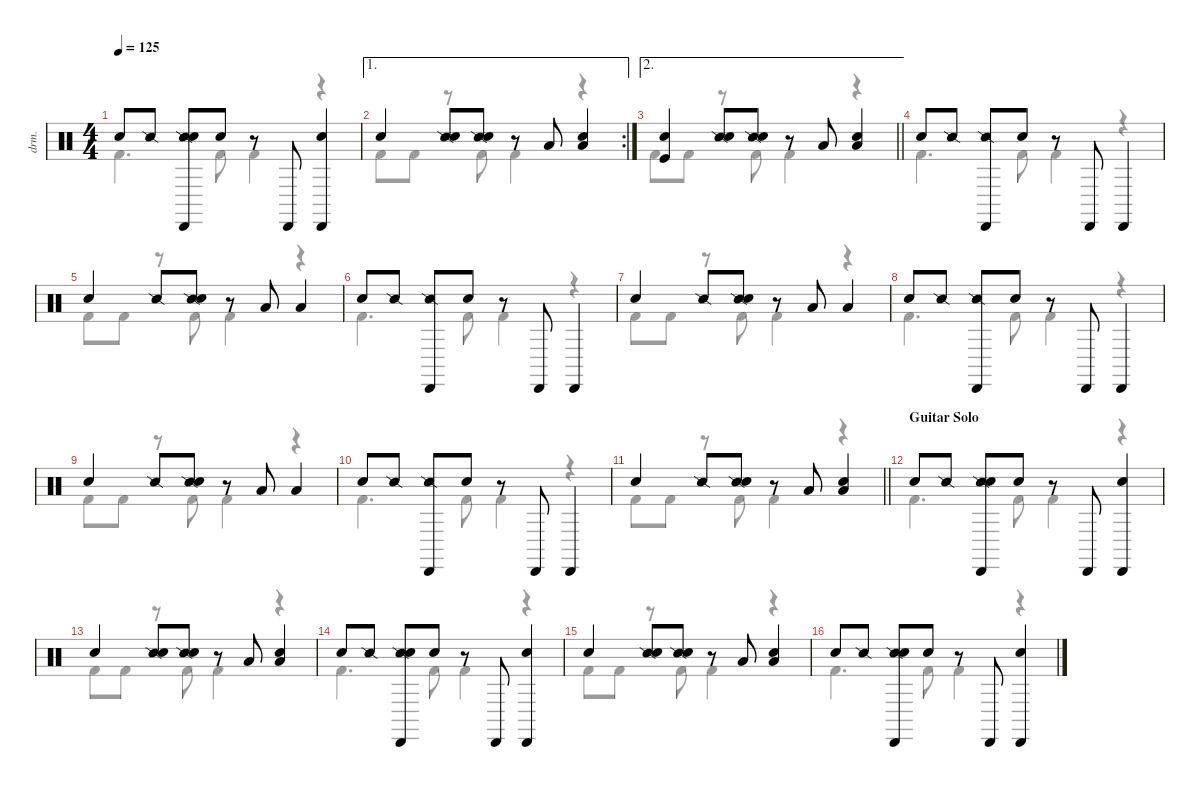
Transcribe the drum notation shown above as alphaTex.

\defaultSystemsLayout 4
\hideDynamics
\bracketExtendMode nobrackets
\otherSystemsTrackNameOrientation horizontal
\track ("Drums" "drm.") {instrument percussion}
\staff {score}
\articulation defaults
\voice
\ts (4 4)
\tempo 125
\clef neutral
\ks c "Hand Clap (hit)".8{dy p beam Up} "Snare (side stick) 2".8{dy f beam Up}
("Snare (side stick) 2" "Cabasa (hit)" "Snare (hit) 2").8{beam Up} "Hand Clap (hit)".8{dy p beam Up} r.8{beam Up} "Cabasa (hit)".8{dy f beam Up} ("Cabasa (hit)" "Snare (hit) 2").4{beam Up} |
\ae 1
\rc 2 "Hand Clap (hit)".4{dy p beam Up}
("Snare (side stick) 2" "Snare (hit) 2").8{dy mf beam Up} ("Snare (side stick) 2" "Hand Clap (hit)").8{beam Up} r.8{beam Up} "Low Tom (hit)".8{dy f beam Up} ("Low Tom (hit)" "Snare (hit) 2").4{beam Up} |
\ae 2
\barLineRight lightlight
("Kick (hit)" "Hand Clap (hit)").4{dy ff beam Up} ("Snare (side stick) 2" "Snare (hit) 2").8{dy mf beam Up} ("Snare (side stick) 2" "Hand Clap (hit)").8{beam Up} r.8{beam Up} "Low Tom (hit)".8{dy f beam Up} ("Low Tom (hit)" "Snare (hit) 2").4{beam Up} |
"Hand Clap (hit)".8{dy p beam Up} "Snare (side stick) 2".8{dy f beam Up} ("Snare (side stick) 2" "Cabasa (hit)").8{beam Up} "Hand Clap (hit)".8{dy p beam Up} r.8{beam Up} "Cabasa (hit)".8{dy f beam Up} "Cabasa (hit)".4{beam Up} |
"Hand Clap (hit)".4{dy p beam Up} "Snare (side stick) 2".8{dy mf beam Up} ("Snare (side stick) 2" "Hand Clap (hit)").8{beam Up} r.8{beam Up} "Low Tom (hit)".8{dy f beam Up} "Low Tom (hit)".4{beam Up} |
"Hand Clap (hit)".8{dy p beam Up} "Snare (side stick) 2".8{dy f beam Up} ("Snare (side stick) 2" "Cabasa (hit)").8{beam Up} "Hand Clap (hit)".8{dy p beam Up} r.8{beam Up} "Cabasa (hit)".8{dy f beam Up} "Cabasa (hit)".4{beam Up} |
"Hand Clap (hit)".4{dy p beam Up} "Snare (side stick) 2".8{dy mf beam Up} ("Snare (side stick) 2" "Hand Clap (hit)").8{beam Up} r.8{beam Up} "Low Tom (hit)".8{dy f beam Up} "Low Tom (hit)".4{beam Up} |
"Hand Clap (hit)".8{dy p beam Up} "Snare (side stick) 2".8{dy f beam Up} ("Snare (side stick) 2" "Cabasa (hit)").8{beam Up} "Hand Clap (hit)".8{dy p beam Up} r.8{beam Up} "Cabasa (hit)".8{dy f beam Up} "Cabasa (hit)".4{beam Up} |
"Hand Clap (hit)".4{dy p beam Up} "Snare (side stick) 2".8{dy mf beam Up} ("Snare (side stick) 2" "Hand Clap (hit)").8{beam Up} r.8{beam Up} "Low Tom (hit)".8{dy f beam Up} "Low Tom (hit)".4{beam Up} |
"Hand Clap (hit)".8{dy p beam Up} "Snare (side stick) 2".8{dy f beam Up} ("Snare (side stick) 2" "Cabasa (hit)").8{beam Up} "Hand Clap (hit)".8{dy p beam Up} r.8{beam Up} "Cabasa (hit)".8{dy f beam Up} "Cabasa (hit)".4{beam Up} |
\barLineRight lightlight "Hand Clap (hit)".4{dy p beam Up} "Snare (side stick) 2".8{dy mf beam Up}
("Snare (side stick) 2" "Hand Clap (hit)").8{beam Up} r.8{beam Up} "Low Tom (hit)".8{dy f beam Up} ("Low Tom (hit)" "Snare (hit) 2").4{beam Up} |
\section ("" "Guitar Solo")
"Hand Clap (hit)".8{dy p beam Up} "Snare (side stick) 2".8{dy f beam Up} ("Snare (side stick) 2" "Cabasa (hit)" "Snare (hit) 2").8{beam Up} "Hand Clap (hit)".8{dy p beam Up} r.8{beam Up} "Cabasa (hit)".8{dy f beam Up} ("Cabasa (hit)" "Snare (hit) 2").4{beam Up} |
"Hand Clap (hit)".4{dy p beam Up} ("Snare (side stick) 2" "Snare (hit) 2").8{dy mf beam Up} ("Snare (side stick) 2" "Hand Clap (hit)").8{beam Up} r.8{beam Up} "Low Tom (hit)".8{dy f beam Up} ("Low Tom (hit)" "Snare (hit) 2").4{beam Up} |
"Hand Clap (hit)".8{dy p beam Up} "Snare (side stick) 2".8{dy f beam Up} ("Snare (side stick) 2" "Cabasa (hit)" "Snare (hit) 2").8{beam Up} "Hand Clap (hit)".8{dy p beam Up} r.8{beam Up} "Cabasa (hit)".8{dy f beam Up} ("Cabasa (hit)" "Snare (hit) 2").4{beam Up} |
"Hand Clap (hit)".4{dy p beam Up} ("Snare (side stick) 2" "Snare (hit) 2").8{dy mf beam Up} ("Snare (side stick) 2" "Hand Clap (hit)").8{beam Up} r.8{beam Up} "Low Tom (hit)".8{dy f beam Up} ("Low Tom (hit)" "Snare (hit) 2").4{beam Up} |
"Hand Clap (hit)".8{dy p beam Up} "Snare (side stick) 2".8{dy f beam Up} ("Snare (side stick) 2" "Cabasa (hit)" "Snare (hit) 2").8{beam Up} "Hand Clap (hit)".8{dy p beam Up} r.8{beam Up} "Cabasa (hit)".8{dy f beam Up} ("Cabasa (hit)" "Snare (hit) 2").4{beam Up}
\voice
\clef neutral
\ottava regular
\simile none
\ks c "Kick (hit) 2".4{d dy ff beam Down} "Kick (hit) 2".8{beam Down} "Kick (hit) 2".4{dy p beam Down}
r.4{beam Down} |
"Kick (hit) 2".8{dy ff beam Down} "Kick (hit) 2".8{dy p beam Down} r.8{beam Down} "Kick (hit) 2".8{dy ff beam Down} "Kick (hit) 2".4{dy p beam Down} r.4{beam Down} |
\barLineRight lightlight "Kick (hit) 2".8{dy ff beam Down} "Kick (hit) 2".8{dy p beam Down}
r.8{beam Down} "Kick (hit) 2".8{dy ff beam Down} "Kick (hit) 2".4{dy p beam Down} r.4{beam Down} |
"Kick (hit) 2".4{d dy ff beam Down} "Kick (hit) 2".8{beam Down} "Kick (hit) 2".4{dy p beam Down} r.4{beam Down} |
"Kick (hit) 2".8{dy ff beam Down} "Kick (hit) 2".8{dy p beam Down} r.8{beam Down} "Kick (hit) 2".8{dy ff beam Down} "Kick (hit) 2".4{dy p beam Down} r.4{beam Down} |
"Kick (hit) 2".4{d dy ff beam Down} "Kick (hit) 2".8{beam Down} "Kick (hit) 2".4{dy p beam Down} r.4{beam Down} |
"Kick (hit) 2".8{dy ff beam Down} "Kick (hit) 2".8{dy p beam Down} r.8{beam Down} "Kick (hit) 2".8{dy ff beam Down} "Kick (hit) 2".4{dy p beam Down} r.4{beam Down} |
"Kick (hit) 2".4{d dy ff beam Down} "Kick (hit) 2".8{beam Down} "Kick (hit) 2".4{dy p beam Down} r.4{beam Down} |
"Kick (hit) 2".8{dy ff beam Down} "Kick (hit) 2".8{dy p beam Down} r.8{beam Down} "Kick (hit) 2".8{dy ff beam Down} "Kick (hit) 2".4{dy p beam Down} r.4{beam Down} |
"Kick (hit) 2".4{d dy ff beam Down} "Kick (hit) 2".8{beam Down} "Kick (hit) 2".4{dy p beam Down} r.4{beam Down} |
\barLineRight lightlight "Kick (hit) 2".8{dy ff beam Down} "Kick (hit) 2".8{dy p beam Down}
r.8{beam Down} "Kick (hit) 2".8{dy ff beam Down} "Kick (hit) 2".4{dy p beam Down} r.4{beam Down} |
"Kick (hit) 2".4{d dy ff beam Down} "Kick (hit) 2".8{beam Down} "Kick (hit) 2".4{dy p beam Down} r.4{beam Down} |
"Kick (hit) 2".8{dy ff beam Down} "Kick (hit) 2".8{dy p beam Down} r.8{beam Down} "Kick (hit) 2".8{dy ff beam Down} "Kick (hit) 2".4{dy p beam Down} r.4{beam Down} |
"Kick (hit) 2".4{d dy ff beam Down} "Kick (hit) 2".8{beam Down} "Kick (hit) 2".4{dy p beam Down} r.4{beam Down} |
"Kick (hit) 2".8{dy ff beam Down} "Kick (hit) 2".8{dy p beam Down} r.8{beam Down} "Kick (hit) 2".8{dy ff beam Down} "Kick (hit) 2".4{dy p beam Down} r.4{beam Down} |
"Kick (hit) 2".4{d dy ff beam Down} "Kick (hit) 2".8{beam Down} "Kick (hit) 2".4{dy p beam Down} r.4{beam Down}
